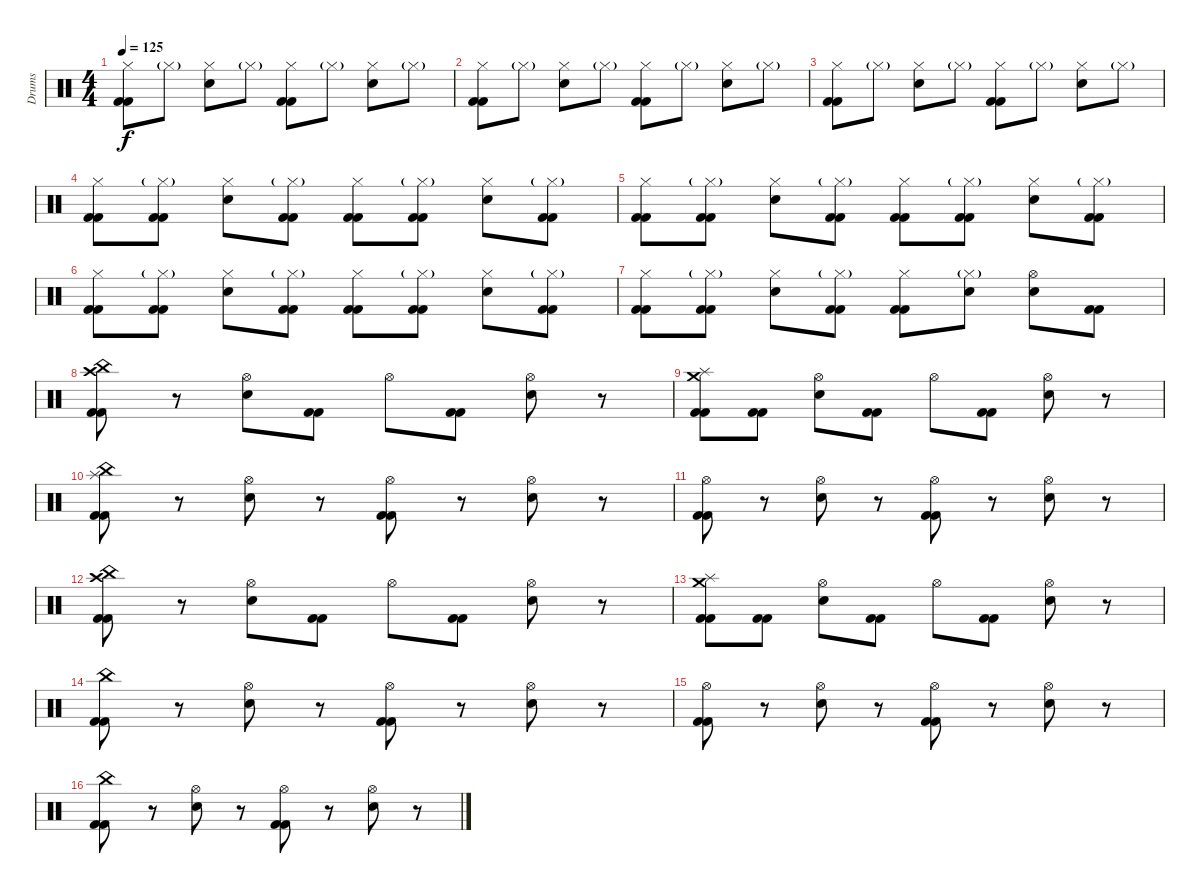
\track ("Drums" "Drums") {instrument percussion}
\staff {score}
\articulation defaults
\ts (4 4)
\tempo 125
\clef neutral
\ks c
("Hi-Hat (closed)" "Kick (hit) 2" "Kick (hit) 2").8{dy f} "Hi-Hat (closed)"{g}.8 ("Hi-Hat (closed)" "Electric Snare (hit)").8 "Hi-Hat (closed)"{g}.8 ("Hi-Hat (closed)" "Kick (hit) 2" "Kick (hit) 2").8 "Hi-Hat (closed)"{g}.8 ("Hi-Hat (closed)" "Electric Snare (hit)").8 "Hi-Hat (closed)"{g}.8 |
("Hi-Hat (closed)" "Kick (hit) 2" "Kick (hit) 2").8 "Hi-Hat (closed)"{g}.8 ("Hi-Hat (closed)" "Electric Snare (hit)").8 "Hi-Hat (closed)"{g}.8 ("Hi-Hat (closed)" "Kick (hit) 2" "Kick (hit) 2").8 "Hi-Hat (closed)"{g}.8 ("Hi-Hat (closed)" "Electric Snare (hit)").8 "Hi-Hat (closed)"{g}.8 |
("Hi-Hat (closed)" "Kick (hit) 2" "Kick (hit) 2").8 "Hi-Hat (closed)"{g}.8 ("Hi-Hat (closed)" "Electric Snare (hit)").8 "Hi-Hat (closed)"{g}.8 ("Hi-Hat (closed)" "Kick (hit) 2" "Kick (hit) 2").8 "Hi-Hat (closed)"{g}.8 ("Hi-Hat (closed)" "Electric Snare (hit)").8 "Hi-Hat (closed)"{g}.8 |
("Hi-Hat (closed)" "Kick (hit) 2" "Kick (hit) 2").8 ("Hi-Hat (closed)"{g} "Kick (hit) 2" "Kick (hit) 2").8 ("Hi-Hat (closed)" "Electric Snare (hit)").8 ("Hi-Hat (closed)"{g} "Kick (hit) 2" "Kick (hit) 2").8 ("Hi-Hat (closed)" "Kick (hit) 2" "Kick (hit) 2").8 ("Hi-Hat (closed)"{g} "Kick (hit) 2" "Kick (hit) 2").8 ("Hi-Hat (closed)" "Electric Snare (hit)").8 ("Hi-Hat (closed)"{g} "Kick (hit) 2" "Kick (hit) 2").8 |
("Hi-Hat (closed)" "Kick (hit) 2" "Kick (hit) 2").8 ("Hi-Hat (closed)"{g} "Kick (hit) 2" "Kick (hit) 2").8 ("Hi-Hat (closed)" "Electric Snare (hit)").8 ("Hi-Hat (closed)"{g} "Kick (hit) 2" "Kick (hit) 2").8 ("Hi-Hat (closed)" "Kick (hit) 2" "Kick (hit) 2").8 ("Hi-Hat (closed)"{g} "Kick (hit) 2" "Kick (hit) 2").8 ("Hi-Hat (closed)" "Electric Snare (hit)").8 ("Hi-Hat (closed)"{g} "Kick (hit) 2" "Kick (hit) 2").8 |
("Hi-Hat (closed)" "Kick (hit) 2" "Kick (hit) 2").8 ("Hi-Hat (closed)"{g} "Kick (hit) 2" "Kick (hit) 2").8 ("Hi-Hat (closed)" "Electric Snare (hit)").8 ("Hi-Hat (closed)"{g} "Kick (hit) 2" "Kick (hit) 2").8 ("Hi-Hat (closed)" "Kick (hit) 2" "Kick (hit) 2").8 ("Hi-Hat (closed)"{g} "Kick (hit) 2" "Kick (hit) 2").8 ("Hi-Hat (closed)" "Electric Snare (hit)").8 ("Hi-Hat (closed)"{g} "Kick (hit) 2" "Kick (hit) 2").8 |
("Hi-Hat (closed)" "Kick (hit) 2" "Kick (hit) 2").8 ("Hi-Hat (closed)"{g} "Kick (hit) 2" "Kick (hit) 2").8 ("Hi-Hat (closed)" "Electric Snare (hit)").8 ("Hi-Hat (closed)"{g} "Kick (hit) 2" "Kick (hit) 2").8 ("Hi-Hat (closed)" "Kick (hit) 2" "Kick (hit) 2").8 ("Hi-Hat (closed)"{g} "Electric Snare (hit)").8 ("Hi-Hat (open)" "Electric Snare (hit)").8 ("Kick (hit) 2" "Kick (hit) 2").8 |
("Crash high (hit)" "China (hit)" "Kick (hit) 2" "Kick (hit) 2").8 r.8 ("Hi-Hat (open)" "Electric Snare (hit)").8 ("Kick (hit) 2" "Kick (hit) 2").8 "Hi-Hat (open)".8 ("Kick (hit) 2" "Kick (hit) 2").8 ("Hi-Hat (open)" "Electric Snare (hit)").8 r.8 |
("Splash (hit)" "Crash medium (hit)" "Kick (hit) 2" "Kick (hit) 2").8 ("Kick (hit) 2" "Kick (hit) 2").8 ("Hi-Hat (open)" "Electric Snare (hit)").8 ("Kick (hit) 2" "Kick (hit) 2").8 "Hi-Hat (open)".8 ("Kick (hit) 2" "Kick (hit) 2").8 ("Hi-Hat (open)" "Electric Snare (hit)").8 r.8 |
("China (hit)" "Splash (hit)" "Kick (hit) 2" "Kick (hit) 2").8 r.8 ("Hi-Hat (open)" "Electric Snare (hit)").8 r.8 ("Hi-Hat (open)" "Kick (hit) 2" "Kick (hit) 2").8 r.8 ("Hi-Hat (open)" "Electric Snare (hit)").8 r.8 |
("Hi-Hat (open)" "Kick (hit) 2" "Kick (hit) 2").8 r.8 ("Hi-Hat (open)" "Electric Snare (hit)").8 r.8 ("Hi-Hat (open)" "Kick (hit) 2" "Kick (hit) 2").8 r.8 ("Hi-Hat (open)" "Electric Snare (hit)").8 r.8 |
("Crash high (hit)" "China (hit)" "Kick (hit) 2" "Kick (hit) 2").8 r.8 ("Hi-Hat (open)" "Electric Snare (hit)").8 ("Kick (hit) 2" "Kick (hit) 2").8 "Hi-Hat (open)".8 ("Kick (hit) 2" "Kick (hit) 2").8 ("Hi-Hat (open)" "Electric Snare (hit)").8 r.8 |
("Splash (hit)" "Crash medium (hit)" "Kick (hit) 2" "Kick (hit) 2").8 ("Kick (hit) 2" "Kick (hit) 2").8 ("Hi-Hat (open)" "Electric Snare (hit)").8 ("Kick (hit) 2" "Kick (hit) 2").8 "Hi-Hat (open)".8 ("Kick (hit) 2" "Kick (hit) 2").8 ("Hi-Hat (open)" "Electric Snare (hit)").8 r.8 |
("China (hit)" "Kick (hit) 2" "Kick (hit) 2").8 r.8 ("Hi-Hat (open)" "Electric Snare (hit)").8 r.8 ("Hi-Hat (open)" "Kick (hit) 2" "Kick (hit) 2").8 r.8 ("Hi-Hat (open)" "Electric Snare (hit)").8 r.8 |
("Hi-Hat (open)" "Kick (hit) 2" "Kick (hit) 2").8 r.8 ("Hi-Hat (open)" "Electric Snare (hit)").8 r.8 ("Hi-Hat (open)" "Kick (hit) 2" "Kick (hit) 2").8 r.8 ("Hi-Hat (open)" "Electric Snare (hit)").8 r.8 |
("China (hit)" "Kick (hit) 2" "Kick (hit) 2").8 r.8 ("Hi-Hat (open)" "Electric Snare (hit)").8 r.8 ("Hi-Hat (open)" "Kick (hit) 2" "Kick (hit) 2").8 r.8 ("Hi-Hat (open)" "Electric Snare (hit)").8 r.8
